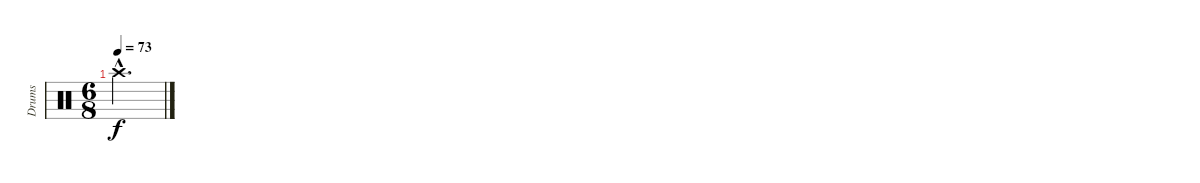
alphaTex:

\track ("Drums" "Drums") {instrument percussion}
\staff {score}
\articulation defaults
\ts (6 8)
\tempo 73
\clef neutral
\ks c "Crash high (hit)"{hac}.2{d dy f}
